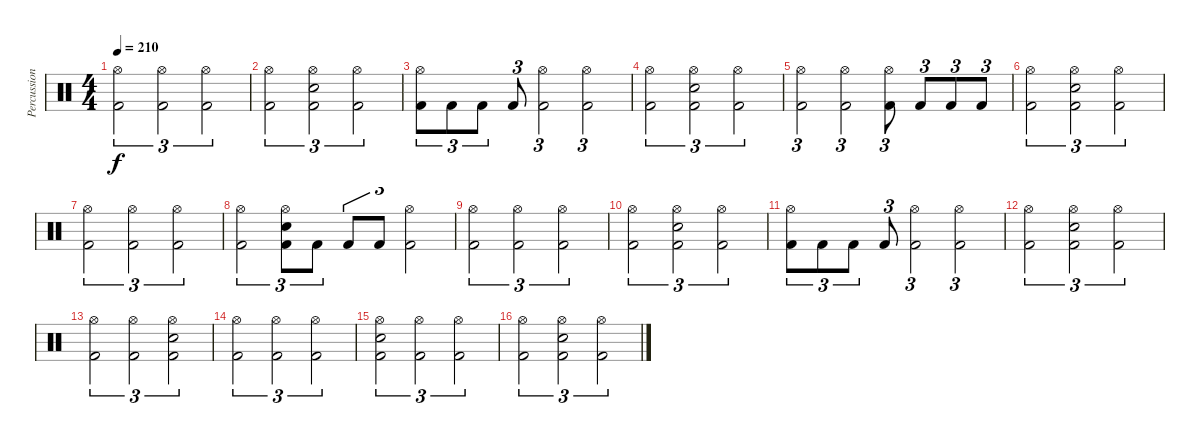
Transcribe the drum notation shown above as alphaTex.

\track ("Percussion" "Percussion") {instrument percussion}
\staff {score}
\articulation defaults
\ts (4 4)
\tempo 210
\clef neutral
\ks c
("Hi-Hat (open)" "Kick (hit) 2").2{tu (3 2) dy f} ("Hi-Hat (open)" "Kick (hit) 2").2{tu (3 2)} ("Hi-Hat (open)" "Kick (hit) 2").2{tu (3 2)} |
("Hi-Hat (open)" "Kick (hit) 2").2{tu (3 2)} ("Hi-Hat (open)" "Kick (hit) 2" "Electric Snare (hit)").2{tu (3 2)} ("Hi-Hat (open)" "Kick (hit) 2").2{tu (3 2)} |
("Hi-Hat (open)" "Kick (hit) 2").8{tu (3 2)} "Kick (hit) 2".8{tu (3 2)} "Kick (hit) 2".8{tu (3 2)} "Kick (hit) 2".8{tu (3 2)} ("Hi-Hat (open)" "Kick (hit) 2").2{tu (3 2)} ("Hi-Hat (open)" "Kick (hit) 2").2{tu (3 2)} |
("Hi-Hat (open)" "Kick (hit) 2").2{tu (3 2)} ("Hi-Hat (open)" "Kick (hit) 2" "Electric Snare (hit)").2{tu (3 2)} ("Hi-Hat (open)" "Kick (hit) 2").2{tu (3 2)} |
("Hi-Hat (open)" "Kick (hit) 2").2{tu (3 2)} ("Hi-Hat (open)" "Kick (hit) 2").2{tu (3 2)} ("Hi-Hat (open)" "Kick (hit) 2").8{tu (3 2)} "Kick (hit) 2".8{tu (3 2)} "Kick (hit) 2".8{tu (3 2)} "Kick (hit) 2".8{tu (3 2)} |
("Hi-Hat (open)" "Kick (hit) 2").2{tu (3 2)} ("Hi-Hat (open)" "Kick (hit) 2" "Electric Snare (hit)").2{tu (3 2)} ("Hi-Hat (open)" "Kick (hit) 2").2{tu (3 2)} |
("Hi-Hat (open)" "Kick (hit) 2").2{tu (3 2)} ("Hi-Hat (open)" "Kick (hit) 2").2{tu (3 2)} ("Hi-Hat (open)" "Kick (hit) 2").2{tu (3 2)} |
("Hi-Hat (open)" "Kick (hit) 2").2{tu (3 2)} ("Hi-Hat (open)" "Kick (hit) 2" "Electric Snare (hit)").8{tu (3 2)} "Kick (hit) 2".8{tu (3 2)} "Kick (hit) 2".8{tu (3 2)} "Kick (hit) 2".8{tu (3 2)} ("Hi-Hat (open)" "Kick (hit) 2").2{tu (3 2)} |
("Hi-Hat (open)" "Kick (hit) 2").2{tu (3 2)} ("Hi-Hat (open)" "Kick (hit) 2").2{tu (3 2)} ("Hi-Hat (open)" "Kick (hit) 2").2{tu (3 2)} |
("Hi-Hat (open)" "Kick (hit) 2").2{tu (3 2)} ("Hi-Hat (open)" "Kick (hit) 2" "Electric Snare (hit)").2{tu (3 2)} ("Hi-Hat (open)" "Kick (hit) 2").2{tu (3 2)} |
("Hi-Hat (open)" "Kick (hit) 2").8{tu (3 2)} "Kick (hit) 2".8{tu (3 2)} "Kick (hit) 2".8{tu (3 2)} "Kick (hit) 2".8{tu (3 2)} ("Hi-Hat (open)" "Kick (hit) 2").2{tu (3 2)} ("Hi-Hat (open)" "Kick (hit) 2").2{tu (3 2)} |
("Hi-Hat (open)" "Kick (hit) 2").2{tu (3 2)} ("Hi-Hat (open)" "Kick (hit) 2" "Electric Snare (hit)").2{tu (3 2)} ("Hi-Hat (open)" "Kick (hit) 2").2{tu (3 2)} |
("Hi-Hat (open)" "Kick (hit) 2").2{tu (3 2)} ("Hi-Hat (open)" "Kick (hit) 2").2{tu (3 2)} ("Hi-Hat (open)" "Kick (hit) 2" "Electric Snare (hit)").2{tu (3 2)} |
("Hi-Hat (open)" "Kick (hit) 2").2{tu (3 2)} ("Hi-Hat (open)" "Kick (hit) 2").2{tu (3 2)} ("Hi-Hat (open)" "Kick (hit) 2").2{tu (3 2)} |
("Hi-Hat (open)" "Kick (hit) 2" "Electric Snare (hit)").2{tu (3 2)} ("Hi-Hat (open)" "Kick (hit) 2").2{tu (3 2)} ("Hi-Hat (open)" "Kick (hit) 2").2{tu (3 2)} |
("Hi-Hat (open)" "Kick (hit) 2").2{tu (3 2)} ("Hi-Hat (open)" "Kick (hit) 2" "Electric Snare (hit)").2{tu (3 2)} ("Hi-Hat (open)" "Kick (hit) 2").2{tu (3 2)}
